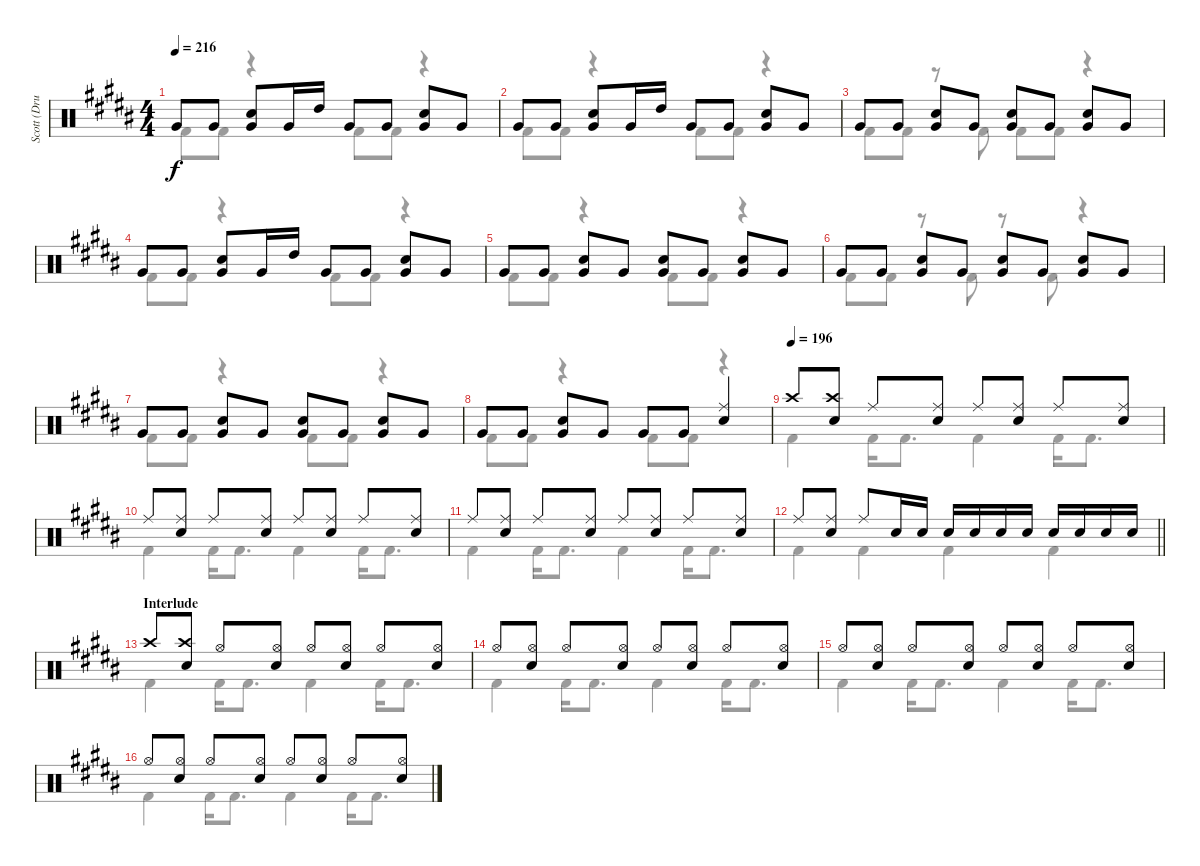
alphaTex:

\track ("Scott (Drums)" "Scott (Dru") {instrument percussion}
\staff {score}
\articulation defaults
\voice
\ts (4 4)
\tempo 216
\clef neutral
\ks b "Very Low Tom (hit)".8{dy f} "Very Low Tom (hit)".8
("Very Low Tom (hit)" "Electric Snare (hit)").8 "Very Low Tom (hit)".16 "High Tom (hit)".16 "Very Low Tom (hit)".8 "Very Low Tom (hit)".8 ("Very Low Tom (hit)" "Electric Snare (hit)").8 "Very Low Tom (hit)".8 |
"Very Low Tom (hit)".8 "Very Low Tom (hit)".8 ("Very Low Tom (hit)" "Electric Snare (hit)").8 "Very Low Tom (hit)".16 "High Tom (hit)".16 "Very Low Tom (hit)".8 "Very Low Tom (hit)".8 ("Very Low Tom (hit)" "Electric Snare (hit)").8 "Very Low Tom (hit)".8 |
"Very Low Tom (hit)".8 "Very Low Tom (hit)".8 ("Very Low Tom (hit)" "Electric Snare (hit)").8 "Very Low Tom (hit)".8 ("Very Low Tom (hit)" "Electric Snare (hit)").8 "Very Low Tom (hit)".8 ("Very Low Tom (hit)" "Electric Snare (hit)").8 "Very Low Tom (hit)".8 |
"Very Low Tom (hit)".8 "Very Low Tom (hit)".8 ("Very Low Tom (hit)" "Electric Snare (hit)").8 "Very Low Tom (hit)".16 "High Tom (hit)".16 "Very Low Tom (hit)".8 "Very Low Tom (hit)".8 ("Very Low Tom (hit)" "Electric Snare (hit)").8 "Very Low Tom (hit)".8 |
"Very Low Tom (hit)".8 "Very Low Tom (hit)".8 ("Very Low Tom (hit)" "Electric Snare (hit)").8 "Very Low Tom (hit)".8 ("Very Low Tom (hit)" "Electric Snare (hit)").8 "Very Low Tom (hit)".8 ("Very Low Tom (hit)" "Electric Snare (hit)").8 "Very Low Tom (hit)".8 |
"Very Low Tom (hit)".8 "Very Low Tom (hit)".8 ("Very Low Tom (hit)" "Electric Snare (hit)").8 "Very Low Tom (hit)".8 ("Very Low Tom (hit)" "Electric Snare (hit)").8 "Very Low Tom (hit)".8 ("Very Low Tom (hit)" "Electric Snare (hit)").8 "Very Low Tom (hit)".8 |
"Very Low Tom (hit)".8 "Very Low Tom (hit)".8 ("Very Low Tom (hit)" "Electric Snare (hit)").8 "Very Low Tom (hit)".8 ("Very Low Tom (hit)" "Electric Snare (hit)").8 "Very Low Tom (hit)".8 ("Very Low Tom (hit)" "Electric Snare (hit)").8 "Very Low Tom (hit)".8 |
"Very Low Tom (hit)".8 "Very Low Tom (hit)".8 ("Very Low Tom (hit)" "Electric Snare (hit)").8 "Very Low Tom (hit)".8 "Very Low Tom (hit)".8 "Very Low Tom (hit)".8 ("Ride (middle)" "Electric Snare (hit)").4 |
\tempo (196)
"Crash high (hit)".8 ("Crash high (hit)" "Electric Snare (hit)").8 "Ride (middle)".8 ("Ride (middle)" "Electric Snare (hit)").8 "Ride (middle)".8 ("Ride (middle)" "Electric Snare (hit)").8 "Ride (middle)".8 ("Ride (middle)" "Electric Snare (hit)").8 |
"Ride (middle)".8 ("Ride (middle)" "Electric Snare (hit)").8 "Ride (middle)".8 ("Ride (middle)" "Electric Snare (hit)").8 "Ride (middle)".8 ("Ride (middle)" "Electric Snare (hit)").8 "Ride (middle)".8 ("Ride (middle)" "Electric Snare (hit)").8 |
"Ride (middle)".8 ("Ride (middle)" "Electric Snare (hit)").8 "Ride (middle)".8 ("Ride (middle)" "Electric Snare (hit)").8 "Ride (middle)".8 ("Ride (middle)" "Electric Snare (hit)").8 "Ride (middle)".8 ("Ride (middle)" "Electric Snare (hit)").8 |
\barLineRight lightlight "Ride (middle)".8
("Ride (middle)" "Electric Snare (hit)").8 "Ride (middle)".8 "Electric Snare (hit)".16 "Electric Snare (hit)".16 "Electric Snare (hit)".16 "Electric Snare (hit)".16 "Electric Snare (hit)".16 "Electric Snare (hit)".16 "Electric Snare (hit)".16 "Electric Snare (hit)".16 "Electric Snare (hit)".16 "Electric Snare (hit)".16 |
\section ("" "Interlude")
"Crash high (hit)".8 ("Crash high (hit)" "Electric Snare (hit)").8 "Hi-Hat (open)".8 ("Hi-Hat (open)" "Electric Snare (hit)").8 "Hi-Hat (open)".8 ("Hi-Hat (open)" "Electric Snare (hit)").8 "Hi-Hat (open)".8 ("Hi-Hat (open)" "Electric Snare (hit)").8 |
"Hi-Hat (open)".8 ("Hi-Hat (open)" "Electric Snare (hit)").8 "Hi-Hat (open)".8 ("Hi-Hat (open)" "Electric Snare (hit)").8 "Hi-Hat (open)".8 ("Hi-Hat (open)" "Electric Snare (hit)").8 "Hi-Hat (open)".8 ("Hi-Hat (open)" "Electric Snare (hit)").8 |
"Hi-Hat (open)".8 ("Hi-Hat (open)" "Electric Snare (hit)").8 "Hi-Hat (open)".8 ("Hi-Hat (open)" "Electric Snare (hit)").8 "Hi-Hat (open)".8 ("Hi-Hat (open)" "Electric Snare (hit)").8 "Hi-Hat (open)".8 ("Hi-Hat (open)" "Electric Snare (hit)").8 |
"Hi-Hat (open)".8 ("Hi-Hat (open)" "Electric Snare (hit)").8 "Hi-Hat (open)".8 ("Hi-Hat (open)" "Electric Snare (hit)").8 "Hi-Hat (open)".8 ("Hi-Hat (open)" "Electric Snare (hit)").8 "Hi-Hat (open)".8 ("Hi-Hat (open)" "Electric Snare (hit)").8
\voice
\clef neutral
\ottava regular
\simile none
\ks b "Kick (hit) 2".8{dy f} "Kick (hit) 2".8
r.4 "Kick (hit) 2".8 "Kick (hit) 2".8 r.4 |
"Kick (hit) 2".8 "Kick (hit) 2".8 r.4 "Kick (hit) 2".8 "Kick (hit) 2".8 r.4 |
"Kick (hit) 2".8 "Kick (hit) 2".8 r.8 "Kick (hit) 2".8 "Kick (hit) 2".8 "Kick (hit) 2".8 r.4 |
"Kick (hit) 2".8 "Kick (hit) 2".8 r.4 "Kick (hit) 2".8 "Kick (hit) 2".8 r.4 |
"Kick (hit) 2".8 "Kick (hit) 2".8 r.4 "Kick (hit) 2".8 "Kick (hit) 2".8 r.4 |
"Kick (hit) 2".8 "Kick (hit) 2".8 r.8 "Kick (hit) 2".8 r.8 "Kick (hit) 2".8 r.4 |
"Kick (hit) 2".8 "Kick (hit) 2".8 r.4 "Kick (hit) 2".8 "Kick (hit) 2".8 r.4 |
"Kick (hit) 2".8 "Kick (hit) 2".8 r.4 "Kick (hit) 2".8 "Kick (hit) 2".8 r.4 |
"Kick (hit) 2".4 "Kick (hit) 2".16 "Kick (hit) 2".8{d} "Kick (hit) 2".4 "Kick (hit) 2".16 "Kick (hit) 2".8{d} |
"Kick (hit) 2".4 "Kick (hit) 2".16 "Kick (hit) 2".8{d} "Kick (hit) 2".4 "Kick (hit) 2".16 "Kick (hit) 2".8{d} |
"Kick (hit) 2".4 "Kick (hit) 2".16 "Kick (hit) 2".8{d} "Kick (hit) 2".4 "Kick (hit) 2".16 "Kick (hit) 2".8{d} |
\barLineRight lightlight "Kick (hit) 2".4 "Kick (hit) 2".4 "Kick (hit) 2".4 "Kick (hit) 2".4
|
"Kick (hit) 2".4 "Kick (hit) 2".16 "Kick (hit) 2".8{d} "Kick (hit) 2".4 "Kick (hit) 2".16 "Kick (hit) 2".8{d} |
"Kick (hit) 2".4 "Kick (hit) 2".16 "Kick (hit) 2".8{d} "Kick (hit) 2".4 "Kick (hit) 2".16 "Kick (hit) 2".8{d} |
"Kick (hit) 2".4 "Kick (hit) 2".16 "Kick (hit) 2".8{d} "Kick (hit) 2".4 "Kick (hit) 2".16 "Kick (hit) 2".8{d} |
"Kick (hit) 2".4 "Kick (hit) 2".16 "Kick (hit) 2".8{d} "Kick (hit) 2".4 "Kick (hit) 2".16 "Kick (hit) 2".8{d}
